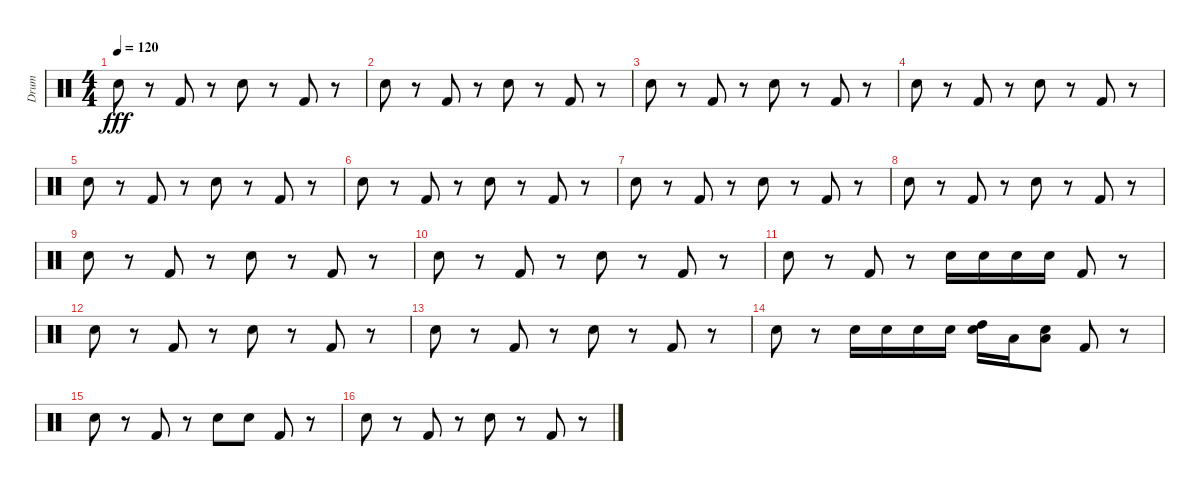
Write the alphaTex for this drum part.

\track ("Drum" "Drum") {instrument percussion}
\staff {score}
\articulation defaults
\ts (4 4)
\tempo 120
\clef neutral
\ks c "Snare (hit) 2".8{dy fff}
r.8 "Kick (hit) 2".8 r.8 "Snare (hit) 2".8 r.8 "Kick (hit) 2".8 r.8 |
"Snare (hit) 2".8 r.8 "Kick (hit) 2".8 r.8 "Snare (hit) 2".8 r.8 "Kick (hit) 2".8 r.8 |
"Snare (hit) 2".8 r.8 "Kick (hit) 2".8 r.8 "Snare (hit) 2".8 r.8 "Kick (hit) 2".8 r.8 |
"Snare (hit) 2".8 r.8 "Kick (hit) 2".8 r.8 "Snare (hit) 2".8 r.8 "Kick (hit) 2".8 r.8 |
"Snare (hit) 2".8 r.8 "Kick (hit) 2".8 r.8 "Snare (hit) 2".8 r.8 "Kick (hit) 2".8 r.8 |
"Snare (hit) 2".8 r.8 "Kick (hit) 2".8 r.8 "Snare (hit) 2".8 r.8 "Kick (hit) 2".8 r.8 |
"Snare (hit) 2".8 r.8 "Kick (hit) 2".8 r.8 "Snare (hit) 2".8 r.8 "Kick (hit) 2".8 r.8 |
"Snare (hit) 2".8 r.8 "Kick (hit) 2".8 r.8 "Snare (hit) 2".8 r.8 "Kick (hit) 2".8 r.8 |
"Snare (hit) 2".8 r.8 "Kick (hit) 2".8 r.8 "Snare (hit) 2".8 r.8 "Kick (hit) 2".8 r.8 |
"Snare (hit) 2".8 r.8 "Kick (hit) 2".8 r.8 "Snare (hit) 2".8 r.8 "Kick (hit) 2".8 r.8 |
"Snare (hit) 2".8 r.8 "Kick (hit) 2".8 r.8 "Snare (hit) 2".16 "Snare (hit) 2".16 "Snare (hit) 2".16 "Snare (hit) 2".16 "Kick (hit) 2".8 r.8 |
"Snare (hit) 2".8 r.8 "Kick (hit) 2".8 r.8 "Snare (hit) 2".8 r.8 "Kick (hit) 2".8 r.8 |
"Snare (hit) 2".8 r.8 "Kick (hit) 2".8 r.8 "Snare (hit) 2".8 r.8 "Kick (hit) 2".8 r.8 |
"Snare (hit) 2".8 r.8 "Snare (hit) 2".16 "Snare (hit) 2".16 "Snare (hit) 2".16 "Snare (hit) 2".16 ("High Tom (hit)" "Snare (hit) 2").16 "Low Tom (hit)".16 ("Snare (hit) 2" "Low Floor Tom (hit)").8 "Kick (hit) 2".8 r.8 |
"Snare (hit) 2".8 r.8 "Kick (hit) 2".8 r.8 "Snare (hit) 2".8 "Snare (hit) 2".8 "Kick (hit) 2".8 r.8 |
"Snare (hit) 2".8 r.8 "Kick (hit) 2".8 r.8 "Snare (hit) 2".8 r.8 "Kick (hit) 2".8 r.8
